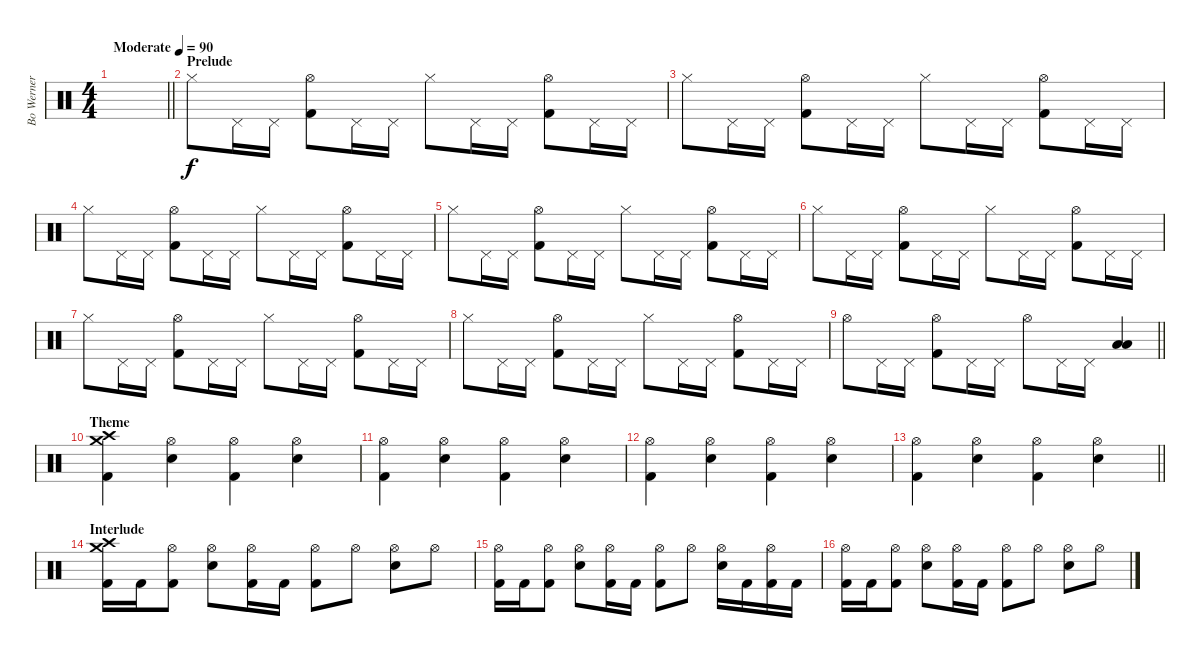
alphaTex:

\track ("Bo Werner" "Bo Werner") {instrument percussion}
\staff {score}
\articulation defaults
\ts (4 4)
\tempo (90 "Moderate")
\clef neutral
\barLineRight lightlight
\ks c
|
\section ("" "Prelude")
"Hi-Hat (closed)".8 "Pedal Hi-Hat (hit)".16 "Pedal Hi-Hat (hit)".16 ("Hi-Hat (open)" "Kick (hit) 2").8 "Pedal Hi-Hat (hit)".16 "Pedal Hi-Hat (hit)".16 "Hi-Hat (closed)".8 "Pedal Hi-Hat (hit)".16 "Pedal Hi-Hat (hit)".16 ("Hi-Hat (open)" "Kick (hit) 2").8 "Pedal Hi-Hat (hit)".16 "Pedal Hi-Hat (hit)".16 |
"Hi-Hat (closed)".8 "Pedal Hi-Hat (hit)".16 "Pedal Hi-Hat (hit)".16 ("Hi-Hat (open)" "Kick (hit) 2").8 "Pedal Hi-Hat (hit)".16 "Pedal Hi-Hat (hit)".16 "Hi-Hat (closed)".8 "Pedal Hi-Hat (hit)".16 "Pedal Hi-Hat (hit)".16 ("Hi-Hat (open)" "Kick (hit) 2").8 "Pedal Hi-Hat (hit)".16 "Pedal Hi-Hat (hit)".16 |
"Hi-Hat (closed)".8 "Pedal Hi-Hat (hit)".16 "Pedal Hi-Hat (hit)".16 ("Hi-Hat (open)" "Kick (hit) 2").8 "Pedal Hi-Hat (hit)".16 "Pedal Hi-Hat (hit)".16 "Hi-Hat (closed)".8 "Pedal Hi-Hat (hit)".16 "Pedal Hi-Hat (hit)".16 ("Hi-Hat (open)" "Kick (hit) 2").8 "Pedal Hi-Hat (hit)".16 "Pedal Hi-Hat (hit)".16 |
"Hi-Hat (closed)".8 "Pedal Hi-Hat (hit)".16 "Pedal Hi-Hat (hit)".16 ("Hi-Hat (open)" "Kick (hit) 2").8 "Pedal Hi-Hat (hit)".16 "Pedal Hi-Hat (hit)".16 "Hi-Hat (closed)".8 "Pedal Hi-Hat (hit)".16 "Pedal Hi-Hat (hit)".16 ("Hi-Hat (open)" "Kick (hit) 2").8 "Pedal Hi-Hat (hit)".16 "Pedal Hi-Hat (hit)".16 |
"Hi-Hat (closed)".8 "Pedal Hi-Hat (hit)".16 "Pedal Hi-Hat (hit)".16 ("Hi-Hat (open)" "Kick (hit) 2").8 "Pedal Hi-Hat (hit)".16 "Pedal Hi-Hat (hit)".16 "Hi-Hat (closed)".8 "Pedal Hi-Hat (hit)".16 "Pedal Hi-Hat (hit)".16 ("Hi-Hat (open)" "Kick (hit) 2").8 "Pedal Hi-Hat (hit)".16 "Pedal Hi-Hat (hit)".16 |
"Hi-Hat (closed)".8 "Pedal Hi-Hat (hit)".16 "Pedal Hi-Hat (hit)".16 ("Hi-Hat (open)" "Kick (hit) 2").8 "Pedal Hi-Hat (hit)".16 "Pedal Hi-Hat (hit)".16 "Hi-Hat (closed)".8 "Pedal Hi-Hat (hit)".16 "Pedal Hi-Hat (hit)".16 ("Hi-Hat (open)" "Kick (hit) 2").8 "Pedal Hi-Hat (hit)".16 "Pedal Hi-Hat (hit)".16 |
"Hi-Hat (closed)".8 "Pedal Hi-Hat (hit)".16 "Pedal Hi-Hat (hit)".16 ("Hi-Hat (open)" "Kick (hit) 2").8 "Pedal Hi-Hat (hit)".16 "Pedal Hi-Hat (hit)".16 "Hi-Hat (closed)".8 "Pedal Hi-Hat (hit)".16 "Pedal Hi-Hat (hit)".16 ("Hi-Hat (open)" "Kick (hit) 2").8 "Pedal Hi-Hat (hit)".16 "Pedal Hi-Hat (hit)".16 |
\barLineRight lightlight "Hi-Hat (open)".8 "Pedal Hi-Hat (hit)".16 "Pedal Hi-Hat (hit)".16
("Hi-Hat (open)" "Kick (hit) 2").8 "Pedal Hi-Hat (hit)".16 "Pedal Hi-Hat (hit)".16 "Hi-Hat (open)".8 "Pedal Hi-Hat (hit)".16 "Pedal Hi-Hat (hit)".16 ("Low Tom (hit)" "Low Tom (hit)").4 |
\section ("" "Theme")
("Crash medium (hit)" "Crash high (hit)" "Kick (hit) 2").4 ("Hi-Hat (open)" "Snare (hit) 2").4 ("Hi-Hat (open)" "Kick (hit) 2").4 ("Hi-Hat (open)" "Snare (hit) 2").4 |
("Hi-Hat (open)" "Kick (hit) 2").4 ("Hi-Hat (open)" "Snare (hit) 2").4 ("Hi-Hat (open)" "Kick (hit) 2").4 ("Hi-Hat (open)" "Snare (hit) 2").4 |
("Hi-Hat (open)" "Kick (hit) 2").4 ("Hi-Hat (open)" "Snare (hit) 2").4 ("Hi-Hat (open)" "Kick (hit) 2").4 ("Hi-Hat (open)" "Snare (hit) 2").4 |
\barLineRight lightlight
("Hi-Hat (open)" "Kick (hit) 2").4 ("Hi-Hat (open)" "Snare (hit) 2").4 ("Hi-Hat (open)" "Kick (hit) 2").4 ("Hi-Hat (open)" "Snare (hit) 2").4 |
\section ("" "Interlude")
("Crash medium (hit)" "Crash high (hit)" "Kick (hit) 2").16 "Kick (hit) 2".16 ("Hi-Hat (open)" "Kick (hit) 2").8 ("Hi-Hat (open)" "Snare (hit) 2").8 ("Hi-Hat (open)" "Kick (hit) 2").16 "Kick (hit) 2".16 ("Hi-Hat (open)" "Kick (hit) 2").8 "Hi-Hat (open)".8 ("Hi-Hat (open)" "Snare (hit) 2").8 "Hi-Hat (open)".8 |
("Hi-Hat (open)" "Kick (hit) 2").16 "Kick (hit) 2".16 ("Hi-Hat (open)" "Kick (hit) 2").8 ("Hi-Hat (open)" "Snare (hit) 2").8 ("Hi-Hat (open)" "Kick (hit) 2").16 "Kick (hit) 2".16 ("Hi-Hat (open)" "Kick (hit) 2").8 "Hi-Hat (open)".8 ("Hi-Hat (open)" "Snare (hit) 2").16 "Kick (hit) 2".16 ("Hi-Hat (open)" "Kick (hit) 2").16 "Kick (hit) 2".16 |
("Hi-Hat (open)" "Kick (hit) 2").16 "Kick (hit) 2".16 ("Hi-Hat (open)" "Kick (hit) 2").8 ("Hi-Hat (open)" "Snare (hit) 2").8 ("Hi-Hat (open)" "Kick (hit) 2").16 "Kick (hit) 2".16 ("Hi-Hat (open)" "Kick (hit) 2").8 "Hi-Hat (open)".8 ("Hi-Hat (open)" "Snare (hit) 2").8 "Hi-Hat (open)".8
